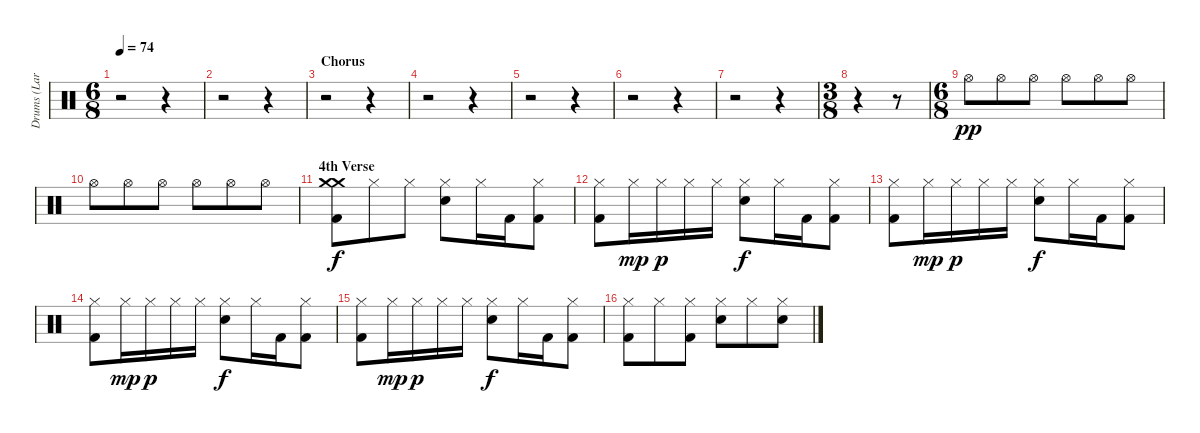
\track ("Drums (Lars Ulrich)" "Drums (Lar") {instrument percussion}
\staff {score}
\articulation defaults
\ts (6 8)
\tempo 74
\clef neutral
\ks c
r.2{dy pp} r.4 |
r.2 r.4 |
\section ("" "Chorus")
r.2 r.4 |
r.2 r.4 |
r.2 r.4 |
r.2 r.4 |
r.2 r.4 |
\ts (3 8)
r.4 r.8 |
\ts (6 8)
"Hi-Hat (open)".8 "Hi-Hat (open)".8 "Hi-Hat (open)".8 "Hi-Hat (open)".8 "Hi-Hat (open)".8 "Hi-Hat (open)".8 |
"Hi-Hat (open)".8 "Hi-Hat (open)".8 "Hi-Hat (open)".8 "Hi-Hat (open)".8 "Hi-Hat (open)".8 "Hi-Hat (open)".8 |
\section ("" "4th Verse")
("Crash medium (hit)" "Crash medium (hit)" "Kick (hit) 2").8{dy f} "Hi-Hat (closed)".8 "Hi-Hat (closed)".8 ("Hi-Hat (closed)" "Snare (hit) 2").8 "Hi-Hat (closed)".16 "Kick (hit) 2".16 ("Hi-Hat (closed)" "Kick (hit) 2").8 |
("Hi-Hat (closed)" "Kick (hit) 2").8 "Hi-Hat (closed)".16{dy mp} "Hi-Hat (closed)".16{dy p} "Hi-Hat (closed)".16 "Hi-Hat (closed)".16 ("Hi-Hat (closed)" "Snare (hit) 2").8{dy f} "Hi-Hat (closed)".16 "Kick (hit) 2".16 ("Hi-Hat (closed)" "Kick (hit) 2").8 |
("Hi-Hat (closed)" "Kick (hit) 2").8 "Hi-Hat (closed)".16{dy mp} "Hi-Hat (closed)".16{dy p} "Hi-Hat (closed)".16 "Hi-Hat (closed)".16 ("Hi-Hat (closed)" "Snare (hit) 2").8{dy f} "Hi-Hat (closed)".16 "Kick (hit) 2".16 ("Hi-Hat (closed)" "Kick (hit) 2").8 |
("Hi-Hat (closed)" "Kick (hit) 2").8 "Hi-Hat (closed)".16{dy mp} "Hi-Hat (closed)".16{dy p} "Hi-Hat (closed)".16 "Hi-Hat (closed)".16 ("Hi-Hat (closed)" "Snare (hit) 2").8{dy f} "Hi-Hat (closed)".16 "Kick (hit) 2".16 ("Hi-Hat (closed)" "Kick (hit) 2").8 |
("Hi-Hat (closed)" "Kick (hit) 2").8 "Hi-Hat (closed)".16{dy mp} "Hi-Hat (closed)".16{dy p} "Hi-Hat (closed)".16 "Hi-Hat (closed)".16 ("Hi-Hat (closed)" "Snare (hit) 2").8{dy f} "Hi-Hat (closed)".16 "Kick (hit) 2".16 ("Hi-Hat (closed)" "Kick (hit) 2").8 |
("Hi-Hat (closed)" "Kick (hit) 2").8 "Hi-Hat (closed)".8 ("Hi-Hat (closed)" "Kick (hit) 2").8 ("Hi-Hat (closed)" "Snare (hit) 2").8 "Hi-Hat (closed)".8 ("Hi-Hat (closed)" "Snare (hit) 2").8
